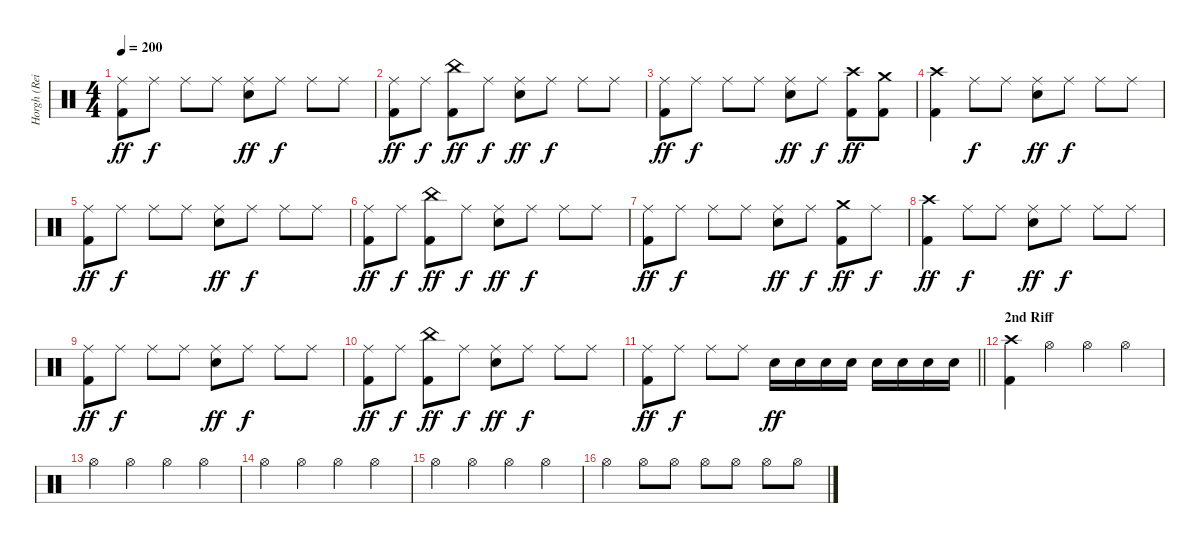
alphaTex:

\track ("Horgh (Reidar Horghagen)" "Horgh (Rei") {instrument percussion}
\staff {score}
\articulation defaults
\ts (4 4)
\tempo 200
\clef neutral
\ks c
("Ride (middle)" "Kick (hit) 2").8{dy ff} "Ride (middle)".8{dy f} "Ride (middle)".8 "Ride (middle)".8 ("Ride (middle)" "Snare (hit) 2").8{dy ff} "Ride (middle)".8{dy f} "Ride (middle)".8 "Ride (middle)".8 |
("Ride (middle)" "Kick (hit) 2").8{dy ff} "Ride (middle)".8{dy f} ("China (hit)" "Kick (hit) 2").8{dy ff} "Ride (middle)".8{dy f} ("Ride (middle)" "Snare (hit) 2").8{dy ff} "Ride (middle)".8{dy f} "Ride (middle)".8 "Ride (middle)".8 |
("Ride (middle)" "Kick (hit) 2").8{dy ff} "Ride (middle)".8{dy f} "Ride (middle)".8 "Ride (middle)".8 ("Ride (middle)" "Snare (hit) 2").8{dy ff} "Ride (middle)".8{dy f} ("Crash high (hit)" "Kick (hit) 2").8{dy ff} ("Crash medium (hit)" "Kick (hit) 2").8 |
("Crash high (hit)" "Kick (hit) 2").4 "Ride (middle)".8{dy f} "Ride (middle)".8 ("Ride (middle)" "Snare (hit) 2").8{dy ff} "Ride (middle)".8{dy f} "Ride (middle)".8 "Ride (middle)".8 |
("Ride (middle)" "Kick (hit) 2").8{dy ff} "Ride (middle)".8{dy f} "Ride (middle)".8 "Ride (middle)".8 ("Ride (middle)" "Snare (hit) 2").8{dy ff} "Ride (middle)".8{dy f} "Ride (middle)".8 "Ride (middle)".8 |
("Ride (middle)" "Kick (hit) 2").8{dy ff} "Ride (middle)".8{dy f} ("China (hit)" "Kick (hit) 2").8{dy ff} "Ride (middle)".8{dy f} ("Ride (middle)" "Snare (hit) 2").8{dy ff} "Ride (middle)".8{dy f} "Ride (middle)".8 "Ride (middle)".8 |
("Ride (middle)" "Kick (hit) 2").8{dy ff} "Ride (middle)".8{dy f} "Ride (middle)".8 "Ride (middle)".8 ("Ride (middle)" "Snare (hit) 2").8{dy ff} "Ride (middle)".8{dy f} ("Crash medium (hit)" "Kick (hit) 2").8{dy ff} "Ride (middle)".8{dy f} |
("Crash high (hit)" "Kick (hit) 2").4{dy ff} "Ride (middle)".8{dy f} "Ride (middle)".8 ("Ride (middle)" "Snare (hit) 2").8{dy ff} "Ride (middle)".8{dy f} "Ride (middle)".8 "Ride (middle)".8 |
("Ride (middle)" "Kick (hit) 2").8{dy ff} "Ride (middle)".8{dy f} "Ride (middle)".8 "Ride (middle)".8 ("Ride (middle)" "Snare (hit) 2").8{dy ff} "Ride (middle)".8{dy f} "Ride (middle)".8 "Ride (middle)".8 |
("Ride (middle)" "Kick (hit) 2").8{dy ff} "Ride (middle)".8{dy f} ("China (hit)" "Kick (hit) 2").8{dy ff} "Ride (middle)".8{dy f} ("Ride (middle)" "Snare (hit) 2").8{dy ff} "Ride (middle)".8{dy f} "Ride (middle)".8 "Ride (middle)".8 |
\barLineRight lightlight
("Ride (middle)" "Kick (hit) 2").8{dy ff} "Ride (middle)".8{dy f} "Ride (middle)".8 "Ride (middle)".8 "Snare (hit) 2".16{dy ff} "Snare (hit) 2".16 "Snare (hit) 2".16 "Snare (hit) 2".16 "Snare (hit) 2".16 "Snare (hit) 2".16 "Snare (hit) 2".16 "Snare (hit) 2".16 |
\section ("" "2nd Riff")
("Crash high (hit)" "Kick (hit) 2").4 "Hi-Hat (open)".4 "Hi-Hat (open)".4 "Hi-Hat (open)".4 |
"Hi-Hat (open)".4 "Hi-Hat (open)".4 "Hi-Hat (open)".4 "Hi-Hat (open)".4 |
"Hi-Hat (open)".4 "Hi-Hat (open)".4 "Hi-Hat (open)".4 "Hi-Hat (open)".4 |
"Hi-Hat (open)".4 "Hi-Hat (open)".4 "Hi-Hat (open)".4 "Hi-Hat (open)".4 |
"Hi-Hat (open)".4 "Hi-Hat (open)".8 "Hi-Hat (open)".8 "Hi-Hat (open)".8 "Hi-Hat (open)".8 "Hi-Hat (open)".8 "Hi-Hat (open)".8
